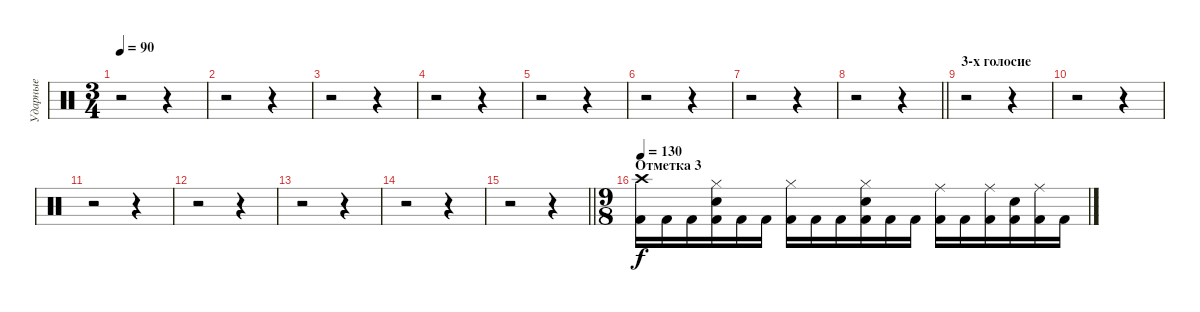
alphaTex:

\track ("Ударные" "Ударные") {instrument percussion}
\staff {score}
\articulation defaults
\ts (3 4)
\tempo 90
\clef neutral
\ks c
r.2{dy f} r.4 |
r.2 r.4 |
r.2 r.4 |
r.2 r.4 |
r.2 r.4 |
r.2 r.4 |
r.2 r.4 |
\barLineRight lightlight
r.2 r.4 |
\section ("" "3-х голосие")
r.2 r.4 |
r.2 r.4 |
r.2 r.4 |
r.2 r.4 |
r.2 r.4 |
r.2 r.4 |
\barLineRight lightlight
r.2 r.4 |
\ts (9 8)
\section ("" "Отметка 3")
\tempo 120
\tempo 130
("Kick (hit) 2" "Crash high (hit)").16 "Kick (hit) 2".16 "Kick (hit) 2".16 ("Kick (hit) 2" "Electric Snare (hit)" "Hi-Hat (closed)").16 "Kick (hit) 2".16 "Kick (hit) 2".16 ("Kick (hit) 2" "Hi-Hat (closed)").16 "Kick (hit) 2".16 "Kick (hit) 2".16 ("Kick (hit) 2" "Electric Snare (hit)" "Hi-Hat (closed)").16 "Kick (hit) 2".16 "Kick (hit) 2".16 ("Kick (hit) 2" "Ride (middle)").16 "Kick (hit) 2".16 ("Kick (hit) 2" "Ride (middle)").16 ("Kick (hit) 2" "Electric Snare (hit)").16 ("Kick (hit) 2" "Ride (middle)").16 "Kick (hit) 2".16
